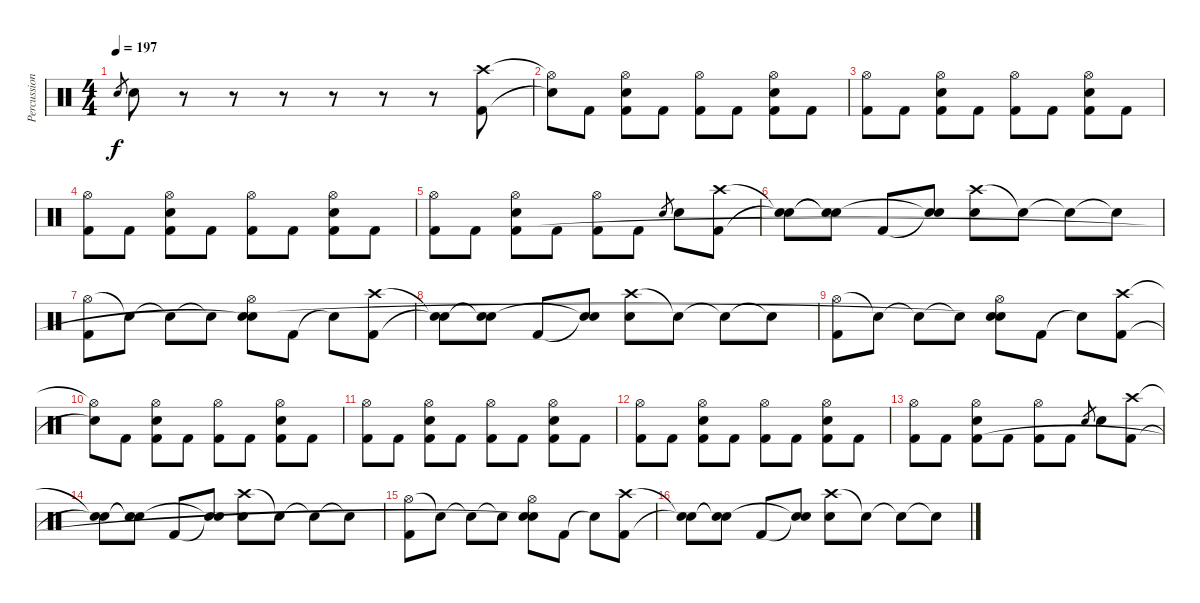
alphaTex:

\track ("Percussion" "Percussion") {instrument percussion}
\staff {score}
\articulation defaults
\ts (4 4)
\tempo 197
\clef neutral
\ks c "Snare (hit) 2".8{gr dy f} "Electric Snare (hit)".8
r.8 r.8 r.8 r.8 r.8 r.8 ("Crash high (hit)" "Kick (hit) 2").8 |
("Hi-Hat (open)"{t} "Snare (hit)"{t}).8 "Kick (hit) 2".8 ("Hi-Hat (open)" "Electric Snare (hit)" "Kick (hit) 2").8 "Kick (hit) 2".8 ("Hi-Hat (open)" "Kick (hit) 2").8 "Kick (hit) 2".8 ("Hi-Hat (open)" "Electric Snare (hit)" "Kick (hit) 2").8 "Kick (hit) 2".8 |
("Hi-Hat (open)" "Kick (hit) 2").8 "Kick (hit) 2".8 ("Hi-Hat (open)" "Electric Snare (hit)" "Kick (hit) 2").8 "Kick (hit) 2".8 ("Hi-Hat (open)" "Kick (hit) 2").8 "Kick (hit) 2".8 ("Hi-Hat (open)" "Electric Snare (hit)" "Kick (hit) 2").8 "Kick (hit) 2".8 |
("Hi-Hat (open)" "Kick (hit) 2").8 "Kick (hit) 2".8 ("Hi-Hat (open)" "Electric Snare (hit)" "Kick (hit) 2").8 "Kick (hit) 2".8 ("Hi-Hat (open)" "Kick (hit) 2").8 "Kick (hit) 2".8 ("Hi-Hat (open)" "Electric Snare (hit)" "Kick (hit) 2").8 "Kick (hit) 2".8 |
("Hi-Hat (open)" "Kick (hit) 2").8 "Kick (hit) 2".8 ("Hi-Hat (open)" "Electric Snare (hit)" "Kick (hit) 2").8 "Kick (hit) 2".8 ("Hi-Hat (open)" "Kick (hit) 2").8 "Kick (hit) 2".8 "Snare (hit) 2".8{gr} "Electric Snare (hit)".8 ("Crash high (hit)" "Kick (hit) 2").8 |
("Snare (hit)"{t} "Snare (hit)"{t}).8 ("Snare (hit)"{t} "Snare (hit)"{t}).8 "Kick (hit) 2".8 ("Snare (hit)"{t} "Snare (hit)"{t}).8 ("Crash high (hit)" "Electric Snare (hit)").8 "Snare (hit)"{t}.8 "Snare (hit)"{t}.8 "Snare (hit)"{t}.8 |
("Hi-Hat (open)" "Kick (hit) 2").8 "Snare (hit)"{t}.8 "Snare (hit)"{t}.8 "Snare (hit)"{t}.8 ("Hi-Hat (open)" "Electric Snare (hit)" "Snare (hit)"{t}).8 "Kick (hit) 2".8 "Snare (hit)"{t}.8 ("Crash high (hit)" "Kick (hit) 2").8 |
("Snare (hit)"{t} "Snare (hit)"{t}).8 ("Snare (hit)"{t} "Snare (hit)"{t}).8 "Kick (hit) 2".8 ("Snare (hit)"{t} "Snare (hit)"{t}).8 ("Crash high (hit)" "Electric Snare (hit)").8 "Snare (hit)"{t}.8 "Snare (hit)"{t}.8 "Snare (hit)"{t}.8 |
("Hi-Hat (open)" "Kick (hit) 2").8 "Snare (hit)"{t}.8 "Snare (hit)"{t}.8 "Snare (hit)"{t}.8 ("Hi-Hat (open)" "Electric Snare (hit)" "Snare (hit)"{t}).8 "Kick (hit) 2".8 "Snare (hit)"{t}.8 ("Crash high (hit)" "Kick (hit) 2").8 |
("Hi-Hat (open)"{t} "Snare (hit)"{t}).8 "Kick (hit) 2".8 ("Hi-Hat (open)" "Electric Snare (hit)" "Kick (hit) 2").8 "Kick (hit) 2".8 ("Hi-Hat (open)" "Kick (hit) 2").8 "Kick (hit) 2".8 ("Hi-Hat (open)" "Electric Snare (hit)" "Kick (hit) 2").8 "Kick (hit) 2".8 |
("Hi-Hat (open)" "Kick (hit) 2").8 "Kick (hit) 2".8 ("Hi-Hat (open)" "Electric Snare (hit)" "Kick (hit) 2").8 "Kick (hit) 2".8 ("Hi-Hat (open)" "Kick (hit) 2").8 "Kick (hit) 2".8 ("Hi-Hat (open)" "Electric Snare (hit)" "Kick (hit) 2").8 "Kick (hit) 2".8 |
("Hi-Hat (open)" "Kick (hit) 2").8 "Kick (hit) 2".8 ("Hi-Hat (open)" "Electric Snare (hit)" "Kick (hit) 2").8 "Kick (hit) 2".8 ("Hi-Hat (open)" "Kick (hit) 2").8 "Kick (hit) 2".8 ("Hi-Hat (open)" "Electric Snare (hit)" "Kick (hit) 2").8 "Kick (hit) 2".8 |
("Hi-Hat (open)" "Kick (hit) 2").8 "Kick (hit) 2".8 ("Hi-Hat (open)" "Electric Snare (hit)" "Kick (hit) 2").8 "Kick (hit) 2".8 ("Hi-Hat (open)" "Kick (hit) 2").8 "Kick (hit) 2".8 "Snare (hit) 2".8{gr} "Electric Snare (hit)".8 ("Crash high (hit)" "Kick (hit) 2").8 |
("Snare (hit)"{t} "Snare (hit)"{t}).8 ("Snare (hit)"{t} "Snare (hit)"{t}).8 "Kick (hit) 2".8 ("Snare (hit)"{t} "Snare (hit)"{t}).8 ("Crash high (hit)" "Electric Snare (hit)").8 "Snare (hit)"{t}.8 "Snare (hit)"{t}.8 "Snare (hit)"{t}.8 |
("Hi-Hat (open)" "Kick (hit) 2").8 "Snare (hit)"{t}.8 "Snare (hit)"{t}.8 "Snare (hit)"{t}.8 ("Hi-Hat (open)" "Electric Snare (hit)" "Snare (hit)"{t}).8 "Kick (hit) 2".8 "Snare (hit)"{t}.8 ("Crash high (hit)" "Kick (hit) 2").8 |
("Snare (hit)"{t} "Snare (hit)"{t}).8 ("Snare (hit)"{t} "Snare (hit)"{t}).8 "Kick (hit) 2".8 ("Snare (hit)"{t} "Snare (hit)"{t}).8 ("Crash high (hit)" "Electric Snare (hit)").8 "Snare (hit)"{t}.8 "Snare (hit)"{t}.8 "Snare (hit)"{t}.8
